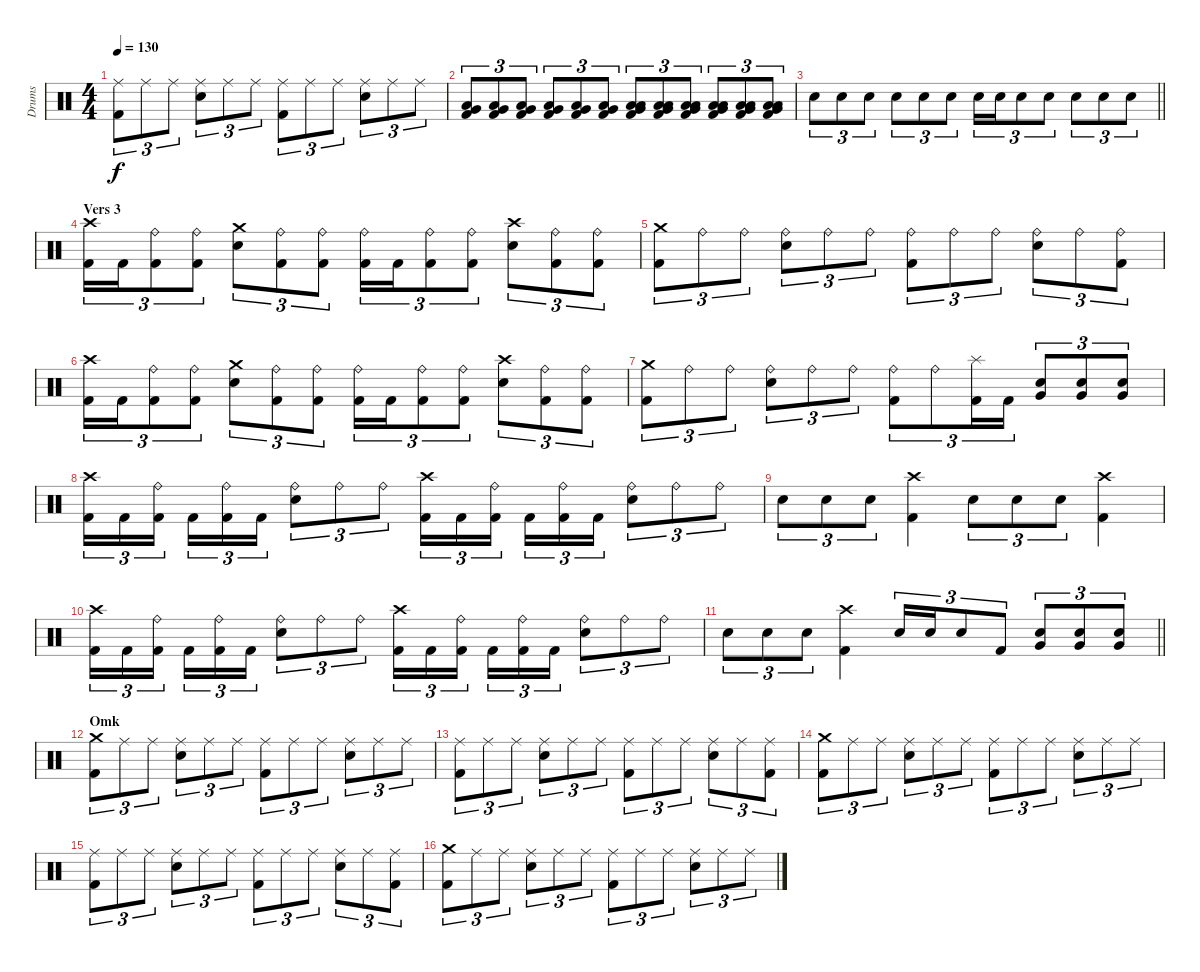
\track ("Drums" "Drums") {instrument percussion}
\staff {score}
\articulation defaults
\ts (4 4)
\tempo 130
\clef neutral
\ks c
("Ride (middle)" "Kick (hit) 2").8{tu (3 2) dy f} "Ride (middle)".8{tu (3 2)} "Ride (middle)".8{tu (3 2)} ("Ride (middle)" "Snare (hit) 2").8{tu (3 2)} "Ride (middle)".8{tu (3 2)} "Ride (middle)".8{tu (3 2)} ("Ride (middle)" "Kick (hit) 2").8{tu (3 2)} "Ride (middle)".8{tu (3 2)} "Ride (middle)".8{tu (3 2)} ("Ride (middle)" "Snare (hit) 2").8{tu (3 2)} "Ride (middle)".8{tu (3 2)} "Ride (middle)".8{tu (3 2)} |
("Low Tom (hit)" "Very Low Tom (hit)" "Kick (hit) 2").8{tu (3 2)} ("Low Tom (hit)" "Very Low Tom (hit)" "Kick (hit) 2").8{tu (3 2)} ("Low Tom (hit)" "Very Low Tom (hit)" "Kick (hit) 2").8{tu (3 2)} ("Low Tom (hit)" "Very Low Tom (hit)" "Kick (hit) 2").8{tu (3 2)} ("Low Tom (hit)" "Very Low Tom (hit)" "Kick (hit) 2").8{tu (3 2)} ("Low Tom (hit)" "Very Low Tom (hit)" "Kick (hit) 2").8{tu (3 2)} ("Low Tom (hit)" "Low Floor Tom (hit)" "Very Low Tom (hit)" "Kick (hit) 2").8{tu (3 2)} ("Low Tom (hit)" "Low Floor Tom (hit)" "Very Low Tom (hit)" "Kick (hit) 2").8{tu (3 2)} ("Low Tom (hit)" "Low Floor Tom (hit)" "Very Low Tom (hit)" "Kick (hit) 2").8{tu (3 2)} ("Low Tom (hit)" "Low Floor Tom (hit)" "Very Low Tom (hit)" "Kick (hit) 2").8{tu (3 2)} ("Low Tom (hit)" "Low Floor Tom (hit)" "Very Low Tom (hit)" "Kick (hit) 2").8{tu (3 2)} ("Low Tom (hit)" "Low Floor Tom (hit)" "Very Low Tom (hit)" "Kick (hit) 2").8{tu (3 2)} |
\barLineRight lightlight "Snare (hit) 2".8{tu (3 2)} "Snare (hit) 2".8{tu (3 2)} "Snare (hit) 2".8{tu (3 2)} "Snare (hit) 2".8{tu (3 2)} "Snare (hit) 2".8{tu (3 2)} "Snare (hit) 2".8{tu (3 2)} "Snare (hit) 2".16{tu (3 2)} "Snare (hit) 2".16{tu (3 2)} "Snare (hit) 2".8{tu (3 2)} "Snare (hit) 2".8{tu (3 2)} "Snare (hit) 2".8{tu (3 2)} "Snare (hit) 2".8{tu (3 2)} "Snare (hit) 2".8{tu (3 2)}
|
\section ("" "Vers 3")
("Crash high (hit)" "Kick (hit) 2").16{tu (3 2)} "Kick (hit) 2".16{tu (3 2)} ("Ride (bell)" "Kick (hit) 2").8{tu (3 2)} ("Ride (bell)" "Kick (hit) 2").8{tu (3 2)} ("Crash medium (hit)" "Snare (hit) 2").8{tu (3 2)} ("Ride (bell)" "Kick (hit) 2").8{tu (3 2)} ("Ride (bell)" "Kick (hit) 2").8{tu (3 2)} ("Ride (bell)" "Kick (hit) 2").16{tu (3 2)} "Kick (hit) 2".16{tu (3 2)} ("Ride (bell)" "Kick (hit) 2").8{tu (3 2)} ("Ride (bell)" "Kick (hit) 2").8{tu (3 2)} ("Crash high (hit)" "Snare (hit) 2").8{tu (3 2)} ("Ride (bell)" "Kick (hit) 2").8{tu (3 2)} ("Ride (bell)" "Kick (hit) 2").8{tu (3 2)} |
("Crash medium (hit)" "Kick (hit) 2").8{tu (3 2)} "Ride (bell)".8{tu (3 2)} "Ride (bell)".8{tu (3 2)} ("Ride (bell)" "Snare (hit) 2").8{tu (3 2)} "Ride (bell)".8{tu (3 2)} "Ride (bell)".8{tu (3 2)} ("Ride (bell)" "Kick (hit) 2").8{tu (3 2)} "Ride (bell)".8{tu (3 2)} "Ride (bell)".8{tu (3 2)} ("Ride (bell)" "Snare (hit) 2").8{tu (3 2)} "Ride (bell)".8{tu (3 2)} ("Ride (bell)" "Kick (hit) 2").8{tu (3 2)} |
("Crash high (hit)" "Kick (hit) 2").16{tu (3 2)} "Kick (hit) 2".16{tu (3 2)} ("Ride (bell)" "Kick (hit) 2").8{tu (3 2)} ("Ride (bell)" "Kick (hit) 2").8{tu (3 2)} ("Crash medium (hit)" "Snare (hit) 2").8{tu (3 2)} ("Ride (bell)" "Kick (hit) 2").8{tu (3 2)} ("Ride (bell)" "Kick (hit) 2").8{tu (3 2)} ("Ride (bell)" "Kick (hit) 2").16{tu (3 2)} "Kick (hit) 2".16{tu (3 2)} ("Ride (bell)" "Kick (hit) 2").8{tu (3 2)} ("Ride (bell)" "Kick (hit) 2").8{tu (3 2)} ("Crash high (hit)" "Snare (hit) 2").8{tu (3 2)} ("Ride (bell)" "Kick (hit) 2").8{tu (3 2)} ("Ride (bell)" "Kick (hit) 2").8{tu (3 2)} |
("Crash medium (hit)" "Kick (hit) 2").8{tu (3 2)} "Ride (bell)".8{tu (3 2)} "Ride (bell)".8{tu (3 2)} ("Ride (bell)" "Snare (hit) 2").8{tu (3 2)} "Ride (bell)".8{tu (3 2)} "Ride (bell)".8{tu (3 2)} ("Ride (bell)" "Kick (hit) 2").8{tu (3 2)} "Ride (bell)".8{tu (3 2)} ("Splash (hit)" "Kick (hit) 2").16{tu (3 2)} "Kick (hit) 2".16{tu (3 2)} ("Very Low Tom (hit)" "Snare (hit) 2").8{tu (3 2)} ("Very Low Tom (hit)" "Snare (hit) 2").8{tu (3 2)} ("Very Low Tom (hit)" "Snare (hit) 2").8{tu (3 2)} |
("Crash high (hit)" "Kick (hit) 2").16{tu (3 2)} "Kick (hit) 2".16{tu (3 2)} ("Ride (bell)" "Kick (hit) 2").16{tu (3 2) beam splitsecondary} "Kick (hit) 2".16{tu (3 2)} ("Ride (bell)" "Kick (hit) 2").16{tu (3 2)} "Kick (hit) 2".16{tu (3 2)} ("Ride (bell)" "Snare (hit) 2").8{tu (3 2)} "Ride (bell)".8{tu (3 2)} "Ride (bell)".8{tu (3 2)} ("Crash high (hit)" "Kick (hit) 2").16{tu (3 2)} "Kick (hit) 2".16{tu (3 2)} ("Ride (bell)" "Kick (hit) 2").16{tu (3 2) beam splitsecondary} "Kick (hit) 2".16{tu (3 2)} ("Ride (bell)" "Kick (hit) 2").16{tu (3 2)} "Kick (hit) 2".16{tu (3 2)} ("Ride (bell)" "Snare (hit) 2").8{tu (3 2)} "Ride (bell)".8{tu (3 2)} "Ride (bell)".8{tu (3 2)} |
"Snare (hit) 2".8{tu (3 2)} "Snare (hit) 2".8{tu (3 2)} "Snare (hit) 2".8{tu (3 2)} ("Crash high (hit)" "Kick (hit) 2").4 "Snare (hit) 2".8{tu (3 2)} "Snare (hit) 2".8{tu (3 2)} "Snare (hit) 2".8{tu (3 2)} ("Crash high (hit)" "Kick (hit) 2").4 |
("Crash high (hit)" "Kick (hit) 2").16{tu (3 2)} "Kick (hit) 2".16{tu (3 2)} ("Ride (bell)" "Kick (hit) 2").16{tu (3 2) beam splitsecondary} "Kick (hit) 2".16{tu (3 2)} ("Ride (bell)" "Kick (hit) 2").16{tu (3 2)} "Kick (hit) 2".16{tu (3 2)} ("Ride (bell)" "Snare (hit) 2").8{tu (3 2)} "Ride (bell)".8{tu (3 2)} "Ride (bell)".8{tu (3 2)} ("Crash high (hit)" "Kick (hit) 2").16{tu (3 2)} "Kick (hit) 2".16{tu (3 2)} ("Ride (bell)" "Kick (hit) 2").16{tu (3 2) beam splitsecondary} "Kick (hit) 2".16{tu (3 2)} ("Ride (bell)" "Kick (hit) 2").16{tu (3 2)} "Kick (hit) 2".16{tu (3 2)} ("Ride (bell)" "Snare (hit) 2").8{tu (3 2)} "Ride (bell)".8{tu (3 2)} "Ride (bell)".8{tu (3 2)} |
\barLineRight lightlight "Snare (hit) 2".8{tu (3 2)} "Snare (hit) 2".8{tu (3 2)} "Snare (hit) 2".8{tu (3 2)}
("Crash high (hit)" "Kick (hit) 2").4 "Snare (hit) 2".16{tu (3 2)} "Snare (hit) 2".16{tu (3 2)} "Snare (hit) 2".8{tu (3 2)} "Kick (hit) 2".8{tu (3 2)} ("Very Low Tom (hit)" "Snare (hit) 2").8{tu (3 2)} ("Very Low Tom (hit)" "Snare (hit) 2").8{tu (3 2)} ("Very Low Tom (hit)" "Snare (hit) 2").8{tu (3 2)} |
\section ("" "Omk")
("Crash medium (hit)" "Kick (hit) 2").8{tu (3 2)} "Ride (middle)".8{tu (3 2)} "Ride (middle)".8{tu (3 2)} ("Ride (middle)" "Snare (hit) 2").8{tu (3 2)} "Ride (middle)".8{tu (3 2)} "Ride (middle)".8{tu (3 2)} ("Ride (middle)" "Kick (hit) 2").8{tu (3 2)} "Ride (middle)".8{tu (3 2)} "Ride (middle)".8{tu (3 2)} ("Ride (middle)" "Snare (hit) 2").8{tu (3 2)} "Ride (middle)".8{tu (3 2)} "Ride (middle)".8{tu (3 2)} |
("Ride (middle)" "Kick (hit) 2").8{tu (3 2)} "Ride (middle)".8{tu (3 2)} "Ride (middle)".8{tu (3 2)} ("Ride (middle)" "Snare (hit) 2").8{tu (3 2)} "Ride (middle)".8{tu (3 2)} "Ride (middle)".8{tu (3 2)} ("Ride (middle)" "Kick (hit) 2").8{tu (3 2)} "Ride (middle)".8{tu (3 2)} "Ride (middle)".8{tu (3 2)} ("Ride (middle)" "Snare (hit) 2").8{tu (3 2)} "Ride (middle)".8{tu (3 2)} ("Ride (middle)" "Kick (hit) 2").8{tu (3 2)} |
("Crash medium (hit)" "Kick (hit) 2").8{tu (3 2)} "Ride (middle)".8{tu (3 2)} "Ride (middle)".8{tu (3 2)} ("Ride (middle)" "Snare (hit) 2").8{tu (3 2)} "Ride (middle)".8{tu (3 2)} "Ride (middle)".8{tu (3 2)} ("Ride (middle)" "Kick (hit) 2").8{tu (3 2)} "Ride (middle)".8{tu (3 2)} "Ride (middle)".8{tu (3 2)} ("Ride (middle)" "Snare (hit) 2").8{tu (3 2)} "Ride (middle)".8{tu (3 2)} "Ride (middle)".8{tu (3 2)} |
("Ride (middle)" "Kick (hit) 2").8{tu (3 2)} "Ride (middle)".8{tu (3 2)} "Ride (middle)".8{tu (3 2)} ("Ride (middle)" "Snare (hit) 2").8{tu (3 2)} "Ride (middle)".8{tu (3 2)} "Ride (middle)".8{tu (3 2)} ("Ride (middle)" "Kick (hit) 2").8{tu (3 2)} "Ride (middle)".8{tu (3 2)} "Ride (middle)".8{tu (3 2)} ("Ride (middle)" "Snare (hit) 2").8{tu (3 2)} "Ride (middle)".8{tu (3 2)} ("Ride (middle)" "Kick (hit) 2").8{tu (3 2)} |
("Crash medium (hit)" "Kick (hit) 2").8{tu (3 2)} "Ride (middle)".8{tu (3 2)} "Ride (middle)".8{tu (3 2)} ("Ride (middle)" "Snare (hit) 2").8{tu (3 2)} "Ride (middle)".8{tu (3 2)} "Ride (middle)".8{tu (3 2)} ("Ride (middle)" "Kick (hit) 2").8{tu (3 2)} "Ride (middle)".8{tu (3 2)} "Ride (middle)".8{tu (3 2)} ("Ride (middle)" "Snare (hit) 2").8{tu (3 2)} "Ride (middle)".8{tu (3 2)} "Ride (middle)".8{tu (3 2)}
